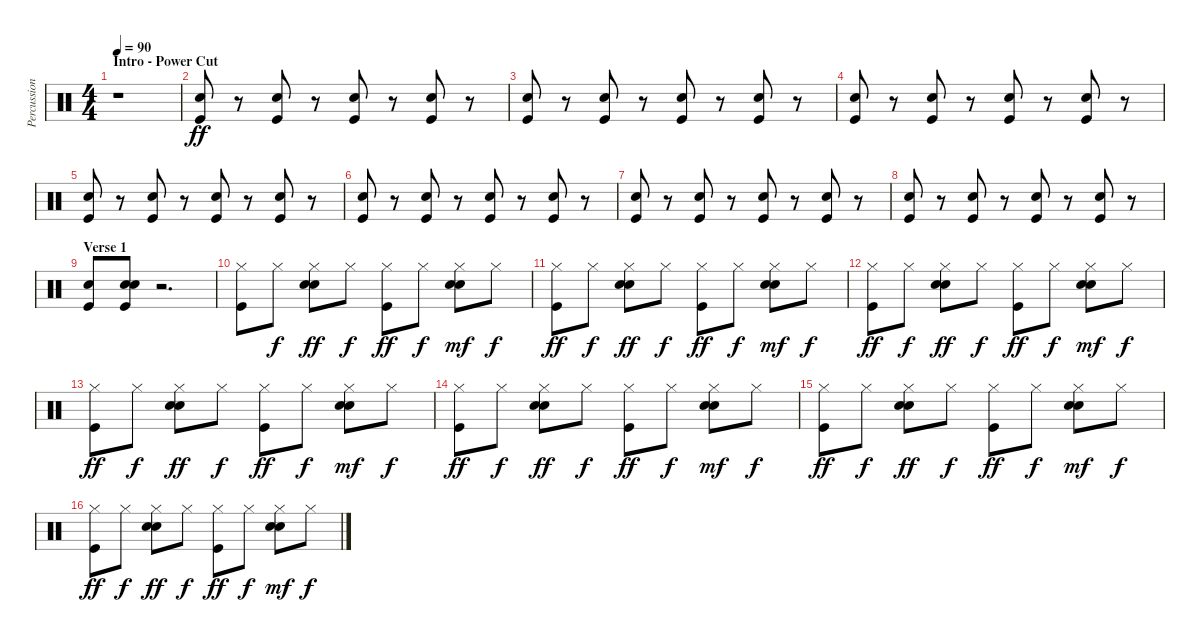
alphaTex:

\track ("Percussion" "Percussion") {instrument percussion}
\staff {score}
\articulation defaults
\ts (4 4)
\section ("" "Intro - Power Cut")
\tempo 90
\clef neutral
\ks c
r.1{dy ff} |
("Snare (hit) 2" "Kick (hit)").8 r.8 ("Snare (hit) 2" "Kick (hit)").8 r.8 ("Snare (hit) 2" "Kick (hit)").8 r.8 ("Snare (hit) 2" "Kick (hit)").8 r.8 |
("Snare (hit) 2" "Kick (hit)").8 r.8 ("Snare (hit) 2" "Kick (hit)").8 r.8 ("Snare (hit) 2" "Kick (hit)").8 r.8 ("Snare (hit) 2" "Kick (hit)").8 r.8 |
("Snare (hit) 2" "Kick (hit)").8 r.8 ("Snare (hit) 2" "Kick (hit)").8 r.8 ("Snare (hit) 2" "Kick (hit)").8 r.8 ("Snare (hit) 2" "Kick (hit)").8 r.8 |
("Snare (hit) 2" "Kick (hit)").8 r.8 ("Snare (hit) 2" "Kick (hit)").8 r.8 ("Snare (hit) 2" "Kick (hit)").8 r.8 ("Snare (hit) 2" "Kick (hit)").8 r.8 |
("Snare (hit) 2" "Kick (hit)").8 r.8 ("Snare (hit) 2" "Kick (hit)").8 r.8 ("Snare (hit) 2" "Kick (hit)").8 r.8 ("Snare (hit) 2" "Kick (hit)").8 r.8 |
("Snare (hit) 2" "Kick (hit)").8 r.8 ("Snare (hit) 2" "Kick (hit)").8 r.8 ("Snare (hit) 2" "Kick (hit)").8 r.8 ("Snare (hit) 2" "Kick (hit)").8 r.8 |
("Snare (hit) 2" "Kick (hit)").8 r.8 ("Snare (hit) 2" "Kick (hit)").8 r.8 ("Snare (hit) 2" "Kick (hit)").8 r.8 ("Snare (hit) 2" "Kick (hit)").8 r.8 |
\section ("" "Verse 1")
("Snare (hit) 2" "Kick (hit)").8 ("Hand Clap (hit)" "Snare (hit) 2" "Kick (hit)").8 r.2{d} |
("Hi-Hat (closed)" "Kick (hit)").8 "Hi-Hat (closed)".8{dy f} ("Hand Clap (hit)" "Hi-Hat (closed)" "Snare (hit) 2").8{dy ff} "Hi-Hat (closed)".8{dy f} ("Hi-Hat (closed)" "Kick (hit)").8{dy ff} "Hi-Hat (closed)".8{dy f} ("Hand Clap (hit)" "Hi-Hat (closed)" "Snare (hit) 2").8{dy mf} "Hi-Hat (closed)".8{dy f} |
("Hi-Hat (closed)" "Kick (hit)").8{dy ff} "Hi-Hat (closed)".8{dy f} ("Hand Clap (hit)" "Hi-Hat (closed)" "Snare (hit) 2").8{dy ff} "Hi-Hat (closed)".8{dy f} ("Hi-Hat (closed)" "Kick (hit)").8{dy ff} "Hi-Hat (closed)".8{dy f} ("Hand Clap (hit)" "Hi-Hat (closed)" "Snare (hit) 2").8{dy mf} "Hi-Hat (closed)".8{dy f} |
("Hi-Hat (closed)" "Kick (hit)").8{dy ff} "Hi-Hat (closed)".8{dy f} ("Hand Clap (hit)" "Hi-Hat (closed)" "Snare (hit) 2").8{dy ff} "Hi-Hat (closed)".8{dy f} ("Hi-Hat (closed)" "Kick (hit)").8{dy ff} "Hi-Hat (closed)".8{dy f} ("Hand Clap (hit)" "Hi-Hat (closed)" "Snare (hit) 2").8{dy mf} "Hi-Hat (closed)".8{dy f} |
("Hi-Hat (closed)" "Kick (hit)").8{dy ff} "Hi-Hat (closed)".8{dy f} ("Hand Clap (hit)" "Hi-Hat (closed)" "Snare (hit) 2").8{dy ff} "Hi-Hat (closed)".8{dy f} ("Hi-Hat (closed)" "Kick (hit)").8{dy ff} "Hi-Hat (closed)".8{dy f} ("Hand Clap (hit)" "Hi-Hat (closed)" "Snare (hit) 2").8{dy mf} "Hi-Hat (closed)".8{dy f} |
("Hi-Hat (closed)" "Kick (hit)").8{dy ff} "Hi-Hat (closed)".8{dy f} ("Hand Clap (hit)" "Hi-Hat (closed)" "Snare (hit) 2").8{dy ff} "Hi-Hat (closed)".8{dy f} ("Hi-Hat (closed)" "Kick (hit)").8{dy ff} "Hi-Hat (closed)".8{dy f} ("Hand Clap (hit)" "Hi-Hat (closed)" "Snare (hit) 2").8{dy mf} "Hi-Hat (closed)".8{dy f} |
("Hi-Hat (closed)" "Kick (hit)").8{dy ff} "Hi-Hat (closed)".8{dy f} ("Hand Clap (hit)" "Hi-Hat (closed)" "Snare (hit) 2").8{dy ff} "Hi-Hat (closed)".8{dy f} ("Hi-Hat (closed)" "Kick (hit)").8{dy ff} "Hi-Hat (closed)".8{dy f} ("Hand Clap (hit)" "Hi-Hat (closed)" "Snare (hit) 2").8{dy mf} "Hi-Hat (closed)".8{dy f} |
("Hi-Hat (closed)" "Kick (hit)").8{dy ff} "Hi-Hat (closed)".8{dy f} ("Hand Clap (hit)" "Hi-Hat (closed)" "Snare (hit) 2").8{dy ff} "Hi-Hat (closed)".8{dy f} ("Hi-Hat (closed)" "Kick (hit)").8{dy ff} "Hi-Hat (closed)".8{dy f} ("Hand Clap (hit)" "Hi-Hat (closed)" "Snare (hit) 2").8{dy mf} "Hi-Hat (closed)".8{dy f}
